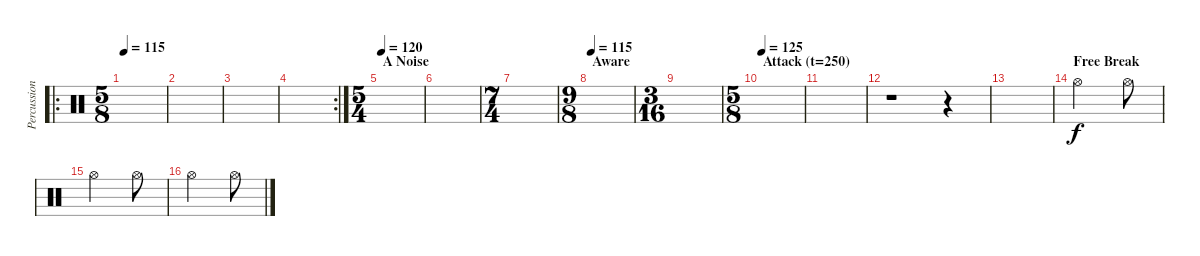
\track ("Percussion" "Percussion") {instrument percussion}
\staff {score}
\articulation defaults
\ro
\ts (5 8)
\tempo 115
\clef neutral
\ks c
|
|
|
\rc 2
|
\ts (5 4)
\section ("" "A Noise")
\tempo 120
|
|
\ts (7 4)
|
\ts (9 8)
\section ("" "Aware")
\tempo 115
|
\ts (3 16)
|
\ts (5 8)
\section ("" "Attack (t=250)")
\tempo 125
|
|
r.1 r.4 |
|
\section ("" "Free Break")
"Hi-Hat (open)".2 "Hi-Hat (open)".8 |
"Hi-Hat (open)".2 "Hi-Hat (open)".8 |
"Hi-Hat (open)".2 "Hi-Hat (open)".8
